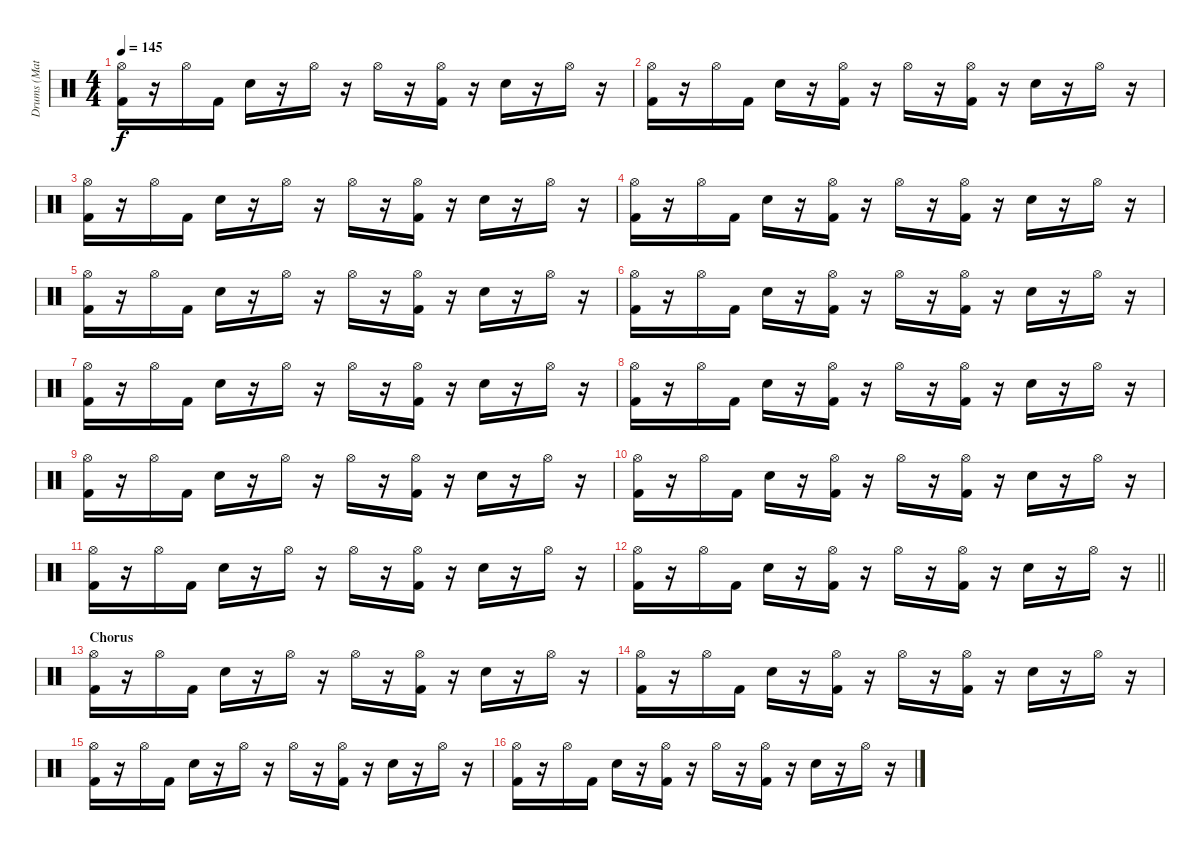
\track ("Drums (Matt)" "Drums (Mat") {instrument percussion}
\staff {score}
\articulation defaults
\ts (4 4)
\tempo 145
\clef neutral
\ks c
("Hi-Hat (open)" "Kick (hit) 2").16{dy f} r.16 "Hi-Hat (open)".16 "Kick (hit) 2".16 "Electric Snare (hit)".16 r.16 "Hi-Hat (open)".16 r.16 "Hi-Hat (open)".16 r.16 ("Hi-Hat (open)" "Kick (hit) 2").16 r.16 "Electric Snare (hit)".16 r.16 "Hi-Hat (open)".16 r.16 |
("Hi-Hat (open)" "Kick (hit) 2").16 r.16 "Hi-Hat (open)".16 "Kick (hit) 2".16 "Electric Snare (hit)".16 r.16 ("Hi-Hat (open)" "Kick (hit) 2").16 r.16 "Hi-Hat (open)".16 r.16 ("Hi-Hat (open)" "Kick (hit) 2").16 r.16 "Electric Snare (hit)".16 r.16 "Hi-Hat (open)".16 r.16 |
("Hi-Hat (open)" "Kick (hit) 2").16 r.16 "Hi-Hat (open)".16 "Kick (hit) 2".16 "Electric Snare (hit)".16 r.16 "Hi-Hat (open)".16 r.16 "Hi-Hat (open)".16 r.16 ("Hi-Hat (open)" "Kick (hit) 2").16 r.16 "Electric Snare (hit)".16 r.16 "Hi-Hat (open)".16 r.16 |
("Hi-Hat (open)" "Kick (hit) 2").16 r.16 "Hi-Hat (open)".16 "Kick (hit) 2".16 "Electric Snare (hit)".16 r.16 ("Hi-Hat (open)" "Kick (hit) 2").16 r.16 "Hi-Hat (open)".16 r.16 ("Hi-Hat (open)" "Kick (hit) 2").16 r.16 "Electric Snare (hit)".16 r.16 "Hi-Hat (open)".16 r.16 |
("Hi-Hat (open)" "Kick (hit) 2").16 r.16 "Hi-Hat (open)".16 "Kick (hit) 2".16 "Electric Snare (hit)".16 r.16 "Hi-Hat (open)".16 r.16 "Hi-Hat (open)".16 r.16 ("Hi-Hat (open)" "Kick (hit) 2").16 r.16 "Electric Snare (hit)".16 r.16 "Hi-Hat (open)".16 r.16 |
("Hi-Hat (open)" "Kick (hit) 2").16 r.16 "Hi-Hat (open)".16 "Kick (hit) 2".16 "Electric Snare (hit)".16 r.16 ("Hi-Hat (open)" "Kick (hit) 2").16 r.16 "Hi-Hat (open)".16 r.16 ("Hi-Hat (open)" "Kick (hit) 2").16 r.16 "Electric Snare (hit)".16 r.16 "Hi-Hat (open)".16 r.16 |
("Hi-Hat (open)" "Kick (hit) 2").16 r.16 "Hi-Hat (open)".16 "Kick (hit) 2".16 "Electric Snare (hit)".16 r.16 "Hi-Hat (open)".16 r.16 "Hi-Hat (open)".16 r.16 ("Hi-Hat (open)" "Kick (hit) 2").16 r.16 "Electric Snare (hit)".16 r.16 "Hi-Hat (open)".16 r.16 |
("Hi-Hat (open)" "Kick (hit) 2").16 r.16 "Hi-Hat (open)".16 "Kick (hit) 2".16 "Electric Snare (hit)".16 r.16 ("Hi-Hat (open)" "Kick (hit) 2").16 r.16 "Hi-Hat (open)".16 r.16 ("Hi-Hat (open)" "Kick (hit) 2").16 r.16 "Electric Snare (hit)".16 r.16 "Hi-Hat (open)".16 r.16 |
("Hi-Hat (open)" "Kick (hit) 2").16 r.16 "Hi-Hat (open)".16 "Kick (hit) 2".16 "Electric Snare (hit)".16 r.16 "Hi-Hat (open)".16 r.16 "Hi-Hat (open)".16 r.16 ("Hi-Hat (open)" "Kick (hit) 2").16 r.16 "Electric Snare (hit)".16 r.16 "Hi-Hat (open)".16 r.16 |
("Hi-Hat (open)" "Kick (hit) 2").16 r.16 "Hi-Hat (open)".16 "Kick (hit) 2".16 "Electric Snare (hit)".16 r.16 ("Hi-Hat (open)" "Kick (hit) 2").16 r.16 "Hi-Hat (open)".16 r.16 ("Hi-Hat (open)" "Kick (hit) 2").16 r.16 "Electric Snare (hit)".16 r.16 "Hi-Hat (open)".16 r.16 |
("Hi-Hat (open)" "Kick (hit) 2").16 r.16 "Hi-Hat (open)".16 "Kick (hit) 2".16 "Electric Snare (hit)".16 r.16 "Hi-Hat (open)".16 r.16 "Hi-Hat (open)".16 r.16 ("Hi-Hat (open)" "Kick (hit) 2").16 r.16 "Electric Snare (hit)".16 r.16 "Hi-Hat (open)".16 r.16 |
\barLineRight lightlight
("Hi-Hat (open)" "Kick (hit) 2").16 r.16 "Hi-Hat (open)".16 "Kick (hit) 2".16 "Electric Snare (hit)".16 r.16 ("Hi-Hat (open)" "Kick (hit) 2").16 r.16 "Hi-Hat (open)".16 r.16 ("Hi-Hat (open)" "Kick (hit) 2").16 r.16 "Electric Snare (hit)".16 r.16 "Hi-Hat (open)".16 r.16 |
\section ("" "Chorus")
("Hi-Hat (open)" "Kick (hit) 2").16 r.16 "Hi-Hat (open)".16 "Kick (hit) 2".16 "Electric Snare (hit)".16 r.16 "Hi-Hat (open)".16 r.16 "Hi-Hat (open)".16 r.16 ("Hi-Hat (open)" "Kick (hit) 2").16 r.16 "Electric Snare (hit)".16 r.16 "Hi-Hat (open)".16 r.16 |
("Hi-Hat (open)" "Kick (hit) 2").16 r.16 "Hi-Hat (open)".16 "Kick (hit) 2".16 "Electric Snare (hit)".16 r.16 ("Hi-Hat (open)" "Kick (hit) 2").16 r.16 "Hi-Hat (open)".16 r.16 ("Hi-Hat (open)" "Kick (hit) 2").16 r.16 "Electric Snare (hit)".16 r.16 "Hi-Hat (open)".16 r.16 |
("Hi-Hat (open)" "Kick (hit) 2").16 r.16 "Hi-Hat (open)".16 "Kick (hit) 2".16 "Electric Snare (hit)".16 r.16 "Hi-Hat (open)".16 r.16 "Hi-Hat (open)".16 r.16 ("Hi-Hat (open)" "Kick (hit) 2").16 r.16 "Electric Snare (hit)".16 r.16 "Hi-Hat (open)".16 r.16 |
("Hi-Hat (open)" "Kick (hit) 2").16 r.16 "Hi-Hat (open)".16 "Kick (hit) 2".16 "Electric Snare (hit)".16 r.16 ("Hi-Hat (open)" "Kick (hit) 2").16 r.16 "Hi-Hat (open)".16 r.16 ("Hi-Hat (open)" "Kick (hit) 2").16 r.16 "Electric Snare (hit)".16 r.16 "Hi-Hat (open)".16 r.16
